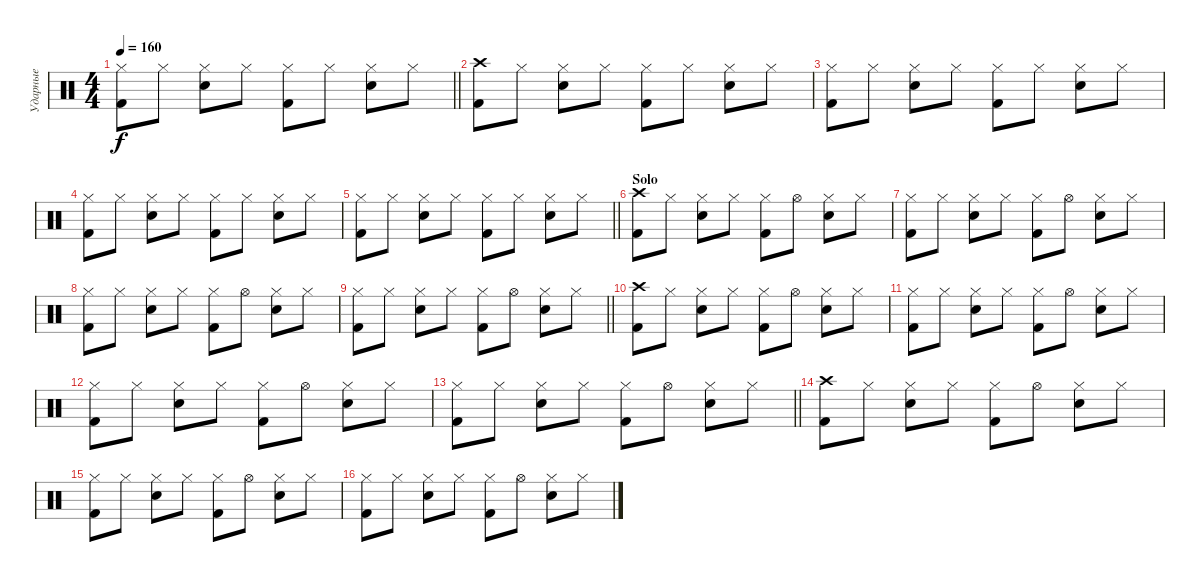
\track ("Ударные" "Ударные") {instrument percussion}
\staff {score}
\articulation defaults
\ts (4 4)
\tempo 160
\clef neutral
\barLineRight lightlight
\ks c
("Hi-Hat (closed)" "Kick (hit) 2").8{dy f} "Hi-Hat (closed)".8 ("Hi-Hat (closed)" "Snare (hit) 2").8 "Hi-Hat (closed)".8 ("Hi-Hat (closed)" "Kick (hit) 2").8 "Hi-Hat (closed)".8 ("Hi-Hat (closed)" "Snare (hit) 2").8 "Hi-Hat (closed)".8 |
("Crash high (hit)" "Kick (hit) 2").8 "Hi-Hat (closed)".8 ("Hi-Hat (closed)" "Snare (hit) 2").8 "Hi-Hat (closed)".8 ("Hi-Hat (closed)" "Kick (hit) 2").8 "Hi-Hat (closed)".8 ("Hi-Hat (closed)" "Snare (hit) 2").8 "Hi-Hat (closed)".8 |
("Hi-Hat (closed)" "Kick (hit) 2").8 "Hi-Hat (closed)".8 ("Hi-Hat (closed)" "Snare (hit) 2").8 "Hi-Hat (closed)".8 ("Hi-Hat (closed)" "Kick (hit) 2").8 "Hi-Hat (closed)".8 ("Hi-Hat (closed)" "Snare (hit) 2").8 "Hi-Hat (closed)".8 |
("Hi-Hat (closed)" "Kick (hit) 2").8 "Hi-Hat (closed)".8 ("Hi-Hat (closed)" "Snare (hit) 2").8 "Hi-Hat (closed)".8 ("Hi-Hat (closed)" "Kick (hit) 2").8 "Hi-Hat (closed)".8 ("Hi-Hat (closed)" "Snare (hit) 2").8 "Hi-Hat (closed)".8 |
\barLineRight lightlight
("Hi-Hat (closed)" "Kick (hit) 2").8 "Hi-Hat (closed)".8 ("Hi-Hat (closed)" "Snare (hit) 2").8 "Hi-Hat (closed)".8 ("Hi-Hat (closed)" "Kick (hit) 2").8 "Hi-Hat (closed)".8 ("Hi-Hat (closed)" "Snare (hit) 2").8 "Hi-Hat (closed)".8 |
\section ("" "Solo")
("Crash high (hit)" "Kick (hit) 2").8 "Hi-Hat (closed)".8 ("Hi-Hat (closed)" "Snare (hit) 2").8 "Hi-Hat (closed)".8 ("Hi-Hat (closed)" "Kick (hit) 2").8 "Hi-Hat (open)".8 ("Hi-Hat (closed)" "Snare (hit) 2").8 "Hi-Hat (closed)".8 |
("Hi-Hat (closed)" "Kick (hit) 2").8 "Hi-Hat (closed)".8 ("Hi-Hat (closed)" "Snare (hit) 2").8 "Hi-Hat (closed)".8 ("Hi-Hat (closed)" "Kick (hit) 2").8 "Hi-Hat (open)".8 ("Hi-Hat (closed)" "Snare (hit) 2").8 "Hi-Hat (closed)".8 |
("Hi-Hat (closed)" "Kick (hit) 2").8 "Hi-Hat (closed)".8 ("Hi-Hat (closed)" "Snare (hit) 2").8 "Hi-Hat (closed)".8 ("Hi-Hat (closed)" "Kick (hit) 2").8 "Hi-Hat (open)".8 ("Hi-Hat (closed)" "Snare (hit) 2").8 "Hi-Hat (closed)".8 |
\barLineRight lightlight
("Hi-Hat (closed)" "Kick (hit) 2").8 "Hi-Hat (closed)".8 ("Hi-Hat (closed)" "Snare (hit) 2").8 "Hi-Hat (closed)".8 ("Hi-Hat (closed)" "Kick (hit) 2").8 "Hi-Hat (open)".8 ("Hi-Hat (closed)" "Snare (hit) 2").8 "Hi-Hat (closed)".8 |
("Crash high (hit)" "Kick (hit) 2").8 "Hi-Hat (closed)".8 ("Hi-Hat (closed)" "Snare (hit) 2").8 "Hi-Hat (closed)".8 ("Hi-Hat (closed)" "Kick (hit) 2").8 "Hi-Hat (open)".8 ("Hi-Hat (closed)" "Snare (hit) 2").8 "Hi-Hat (closed)".8 |
("Hi-Hat (closed)" "Kick (hit) 2").8 "Hi-Hat (closed)".8 ("Hi-Hat (closed)" "Snare (hit) 2").8 "Hi-Hat (closed)".8 ("Hi-Hat (closed)" "Kick (hit) 2").8 "Hi-Hat (open)".8 ("Hi-Hat (closed)" "Snare (hit) 2").8 "Hi-Hat (closed)".8 |
("Hi-Hat (closed)" "Kick (hit) 2").8 "Hi-Hat (closed)".8 ("Hi-Hat (closed)" "Snare (hit) 2").8 "Hi-Hat (closed)".8 ("Hi-Hat (closed)" "Kick (hit) 2").8 "Hi-Hat (open)".8 ("Hi-Hat (closed)" "Snare (hit) 2").8 "Hi-Hat (closed)".8 |
\barLineRight lightlight
("Hi-Hat (closed)" "Kick (hit) 2").8 "Hi-Hat (closed)".8 ("Hi-Hat (closed)" "Snare (hit) 2").8 "Hi-Hat (closed)".8 ("Hi-Hat (closed)" "Kick (hit) 2").8 "Hi-Hat (open)".8 ("Hi-Hat (closed)" "Snare (hit) 2").8 "Hi-Hat (closed)".8 |
("Crash high (hit)" "Kick (hit) 2").8 "Hi-Hat (closed)".8 ("Hi-Hat (closed)" "Snare (hit) 2").8 "Hi-Hat (closed)".8 ("Hi-Hat (closed)" "Kick (hit) 2").8 "Hi-Hat (open)".8 ("Hi-Hat (closed)" "Snare (hit) 2").8 "Hi-Hat (closed)".8 |
("Hi-Hat (closed)" "Kick (hit) 2").8 "Hi-Hat (closed)".8 ("Hi-Hat (closed)" "Snare (hit) 2").8 "Hi-Hat (closed)".8 ("Hi-Hat (closed)" "Kick (hit) 2").8 "Hi-Hat (open)".8 ("Hi-Hat (closed)" "Snare (hit) 2").8 "Hi-Hat (closed)".8 |
("Hi-Hat (closed)" "Kick (hit) 2").8 "Hi-Hat (closed)".8 ("Hi-Hat (closed)" "Snare (hit) 2").8 "Hi-Hat (closed)".8 ("Hi-Hat (closed)" "Kick (hit) 2").8 "Hi-Hat (open)".8 ("Hi-Hat (closed)" "Snare (hit) 2").8 "Hi-Hat (closed)".8
